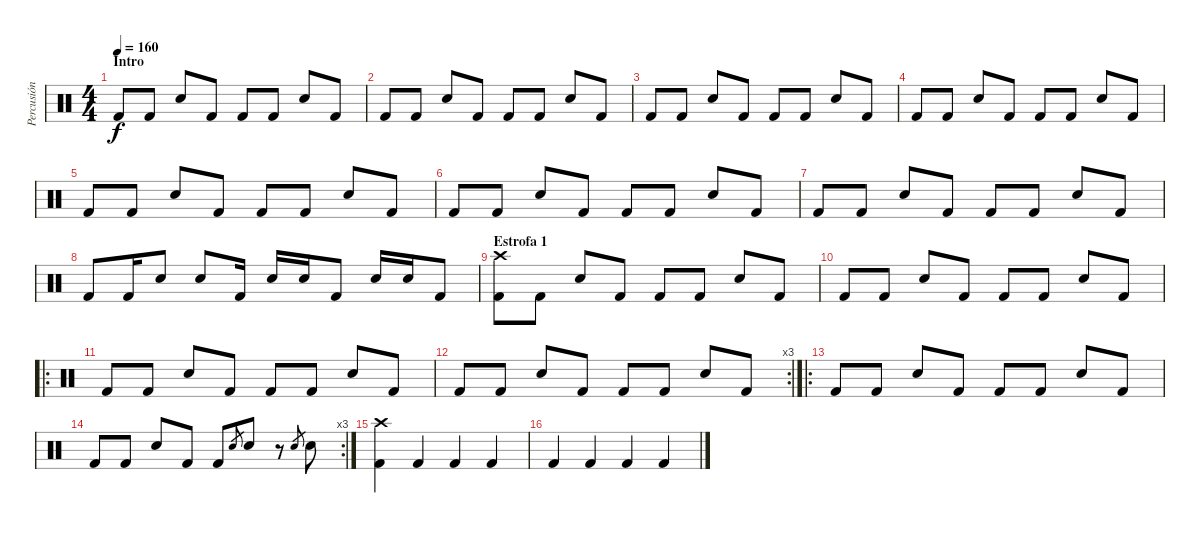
\track ("Percusión" "Percusión") {instrument percussion}
\staff {score}
\articulation defaults
\ts (4 4)
\section ("" "Intro")
\tempo 160
\clef neutral
\ks c "Kick (hit) 2".8{dy f} "Kick (hit) 2".8 "Electric Snare (hit)".8 "Kick (hit) 2".8 "Kick (hit) 2".8 "Kick (hit) 2".8 "Electric Snare (hit)".8 "Kick (hit) 2".8
|
"Kick (hit) 2".8 "Kick (hit) 2".8 "Electric Snare (hit)".8 "Kick (hit) 2".8 "Kick (hit) 2".8 "Kick (hit) 2".8 "Electric Snare (hit)".8 "Kick (hit) 2".8 |
"Kick (hit) 2".8 "Kick (hit) 2".8 "Electric Snare (hit)".8 "Kick (hit) 2".8 "Kick (hit) 2".8 "Kick (hit) 2".8 "Electric Snare (hit)".8 "Kick (hit) 2".8 |
"Kick (hit) 2".8 "Kick (hit) 2".8 "Electric Snare (hit)".8 "Kick (hit) 2".8 "Kick (hit) 2".8 "Kick (hit) 2".8 "Electric Snare (hit)".8 "Kick (hit) 2".8 |
"Kick (hit) 2".8 "Kick (hit) 2".8 "Electric Snare (hit)".8 "Kick (hit) 2".8 "Kick (hit) 2".8 "Kick (hit) 2".8 "Electric Snare (hit)".8 "Kick (hit) 2".8 |
"Kick (hit) 2".8 "Kick (hit) 2".8 "Electric Snare (hit)".8 "Kick (hit) 2".8 "Kick (hit) 2".8 "Kick (hit) 2".8 "Electric Snare (hit)".8 "Kick (hit) 2".8 |
"Kick (hit) 2".8 "Kick (hit) 2".8 "Electric Snare (hit)".8 "Kick (hit) 2".8 "Kick (hit) 2".8 "Kick (hit) 2".8 "Electric Snare (hit)".8 "Kick (hit) 2".8 |
"Kick (hit) 2".8 "Kick (hit) 2".16 "Electric Snare (hit)".8 "Electric Snare (hit)".8 "Kick (hit) 2".16 "Electric Snare (hit)".16 "Electric Snare (hit)".16 "Kick (hit) 2".8 "Electric Snare (hit)".16 "Electric Snare (hit)".16 "Kick (hit) 2".8 |
\section ("" "Estrofa 1")
("Kick (hit) 2" "Crash high (hit)").8 "Kick (hit) 2".8 "Electric Snare (hit)".8 "Kick (hit) 2".8 "Kick (hit) 2".8 "Kick (hit) 2".8 "Electric Snare (hit)".8 "Kick (hit) 2".8 |
"Kick (hit) 2".8 "Kick (hit) 2".8 "Electric Snare (hit)".8 "Kick (hit) 2".8 "Kick (hit) 2".8 "Kick (hit) 2".8 "Electric Snare (hit)".8 "Kick (hit) 2".8 |
\ro "Kick (hit) 2".8 "Kick (hit) 2".8 "Electric Snare (hit)".8 "Kick (hit) 2".8 "Kick (hit) 2".8 "Kick (hit) 2".8 "Electric Snare (hit)".8 "Kick (hit) 2".8
|
\rc 3 "Kick (hit) 2".8 "Kick (hit) 2".8 "Electric Snare (hit)".8 "Kick (hit) 2".8 "Kick (hit) 2".8 "Kick (hit) 2".8 "Electric Snare (hit)".8 "Kick (hit) 2".8
|
\ro "Kick (hit) 2".8 "Kick (hit) 2".8 "Electric Snare (hit)".8 "Kick (hit) 2".8 "Kick (hit) 2".8 "Kick (hit) 2".8 "Electric Snare (hit)".8 "Kick (hit) 2".8
|
\rc 3 "Kick (hit) 2".8 "Kick (hit) 2".8 "Electric Snare (hit)".8 "Kick (hit) 2".8 "Kick (hit) 2".8 "Snare (hit) 2".8{gr} "Electric Snare (hit)".8
r.8 "Snare (hit) 2".8{gr} "Electric Snare (hit)".8 |
("Crash high (hit)" "Kick (hit) 2").4 "Kick (hit) 2".4 "Kick (hit) 2".4 "Kick (hit) 2".4 |
"Kick (hit) 2".4 "Kick (hit) 2".4 "Kick (hit) 2".4 "Kick (hit) 2".4
